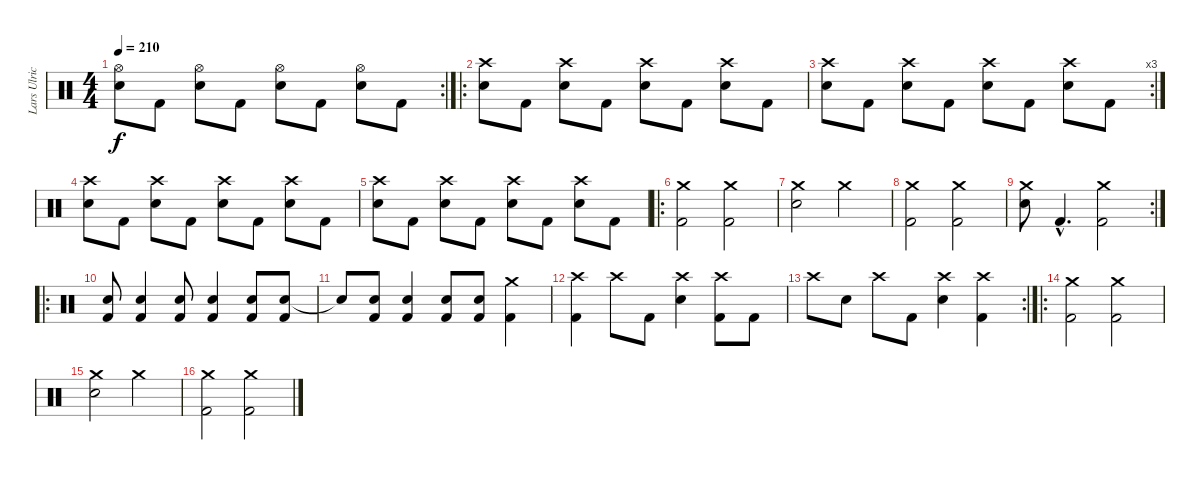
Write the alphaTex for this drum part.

\track ("Lars Ulrich" "Lars Ulric") {instrument percussion}
\staff {score}
\articulation defaults
\rc 2
\ts (4 4)
\tempo 210
\clef neutral
\ks c
("Hi-Hat (open)" "Snare (hit) 2").8{dy f} "Kick (hit) 2".8 ("Hi-Hat (open)" "Snare (hit) 2").8 "Kick (hit) 2".8 ("Hi-Hat (open)" "Snare (hit) 2").8 "Kick (hit) 2".8 ("Hi-Hat (open)" "Snare (hit) 2").8 "Kick (hit) 2".8 |
\ro
("Snare (hit) 2" "Crash high (hit)").8 "Kick (hit) 2".8 ("Snare (hit) 2" "Crash high (hit)").8 "Kick (hit) 2".8 ("Snare (hit) 2" "Crash high (hit)").8 "Kick (hit) 2".8 ("Snare (hit) 2" "Crash high (hit)").8 "Kick (hit) 2".8 |
\rc 3
("Crash high (hit)" "Snare (hit) 2").8 "Kick (hit) 2".8 ("Crash high (hit)" "Snare (hit) 2").8 "Kick (hit) 2".8 ("Crash high (hit)" "Snare (hit) 2").8 "Kick (hit) 2".8 ("Crash high (hit)" "Snare (hit) 2").8 "Kick (hit) 2".8 |
("Snare (hit) 2" "Crash high (hit)").8 "Kick (hit) 2".8 ("Snare (hit) 2" "Crash high (hit)").8 "Kick (hit) 2".8 ("Snare (hit) 2" "Crash high (hit)").8 "Kick (hit) 2".8 ("Snare (hit) 2" "Crash high (hit)").8 "Kick (hit) 2".8 |
("Crash high (hit)" "Snare (hit) 2").8 "Kick (hit) 2".8 ("Crash high (hit)" "Snare (hit) 2").8 "Kick (hit) 2".8 ("Crash high (hit)" "Snare (hit) 2").8 "Kick (hit) 2".8 ("Crash high (hit)" "Snare (hit) 2").8 "Kick (hit) 2".8 |
\ro
("Crash medium (hit)" "Kick (hit) 2").2 ("Crash medium (hit)" "Kick (hit) 2").2 |
("Crash medium (hit)" "Snare (hit) 2").2 "Crash medium (hit)".2 |
("Crash medium (hit)" "Kick (hit) 2").2 ("Crash medium (hit)" "Kick (hit) 2").2 |
\rc 2
("Crash medium (hit)" "Snare (hit) 2").8 "Kick (hit) 2"{hac}.4{d} ("Crash medium (hit)" "Kick (hit) 2").2 |
\ro
("Snare (hit) 2" "Kick (hit) 2").8 ("Snare (hit) 2" "Kick (hit) 2").4 ("Snare (hit) 2" "Kick (hit) 2").8 ("Snare (hit) 2" "Kick (hit) 2").4 ("Snare (hit) 2" "Kick (hit) 2").8 ("Snare (hit) 2" "Kick (hit) 2").8 |
"Snare (hit)"{t}.8 ("Snare (hit) 2" "Kick (hit) 2").8 ("Snare (hit) 2" "Kick (hit) 2").4 ("Snare (hit) 2" "Kick (hit) 2").8 ("Snare (hit) 2" "Kick (hit) 2").8 ("Kick (hit) 2" "Crash medium (hit)").4 |
("Kick (hit) 2" "Crash high (hit)").4 "Crash high (hit)".8 "Kick (hit) 2".8 ("Snare (hit) 2" "Crash high (hit)").4 ("Crash high (hit)" "Kick (hit) 2").8 "Kick (hit) 2".8 |
\rc 2 "Crash high (hit)".8 "Snare (hit) 2".8 "Crash high (hit)".8 "Kick (hit) 2".8
("Crash high (hit)" "Snare (hit) 2").4 ("Crash high (hit)" "Kick (hit) 2").4 |
\ro
("Crash medium (hit)" "Kick (hit) 2").2 ("Crash medium (hit)" "Kick (hit) 2").2 |
("Crash medium (hit)" "Snare (hit) 2").2 "Crash medium (hit)".2 |
("Crash medium (hit)" "Kick (hit) 2").2 ("Crash medium (hit)" "Kick (hit) 2").2
